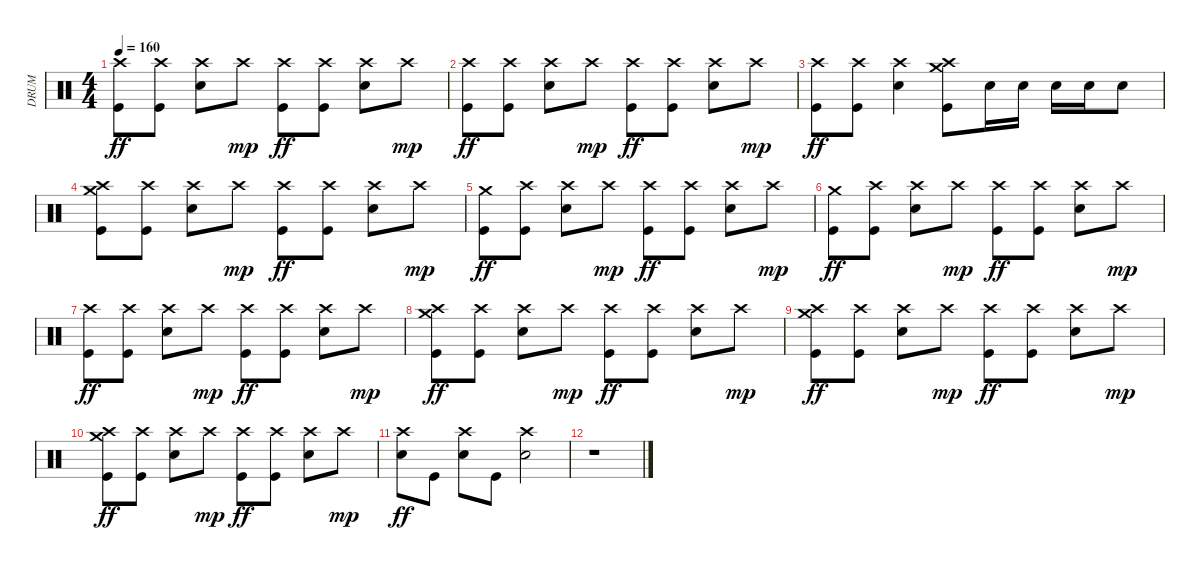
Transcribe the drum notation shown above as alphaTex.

\track ("DRUM" "DRUM") {instrument percussion}
\staff {score}
\articulation defaults
\ts (4 4)
\tempo 160
\clef neutral
\ks c
("Crash high (hit)" "Kick (hit)").8{dy ff} ("Crash high (hit)" "Kick (hit)").8 ("Crash high (hit)" "Electric Snare (hit)").8 "Crash high (hit)".8{dy mp} ("Crash high (hit)" "Kick (hit)").8{dy ff} ("Crash high (hit)" "Kick (hit)").8 ("Crash high (hit)" "Electric Snare (hit)").8 "Crash high (hit)".8{dy mp} |
("Crash high (hit)" "Kick (hit)").8{dy ff} ("Crash high (hit)" "Kick (hit)").8 ("Crash high (hit)" "Electric Snare (hit)").8 "Crash high (hit)".8{dy mp} ("Crash high (hit)" "Kick (hit)").8{dy ff} ("Crash high (hit)" "Kick (hit)").8 ("Crash high (hit)" "Electric Snare (hit)").8 "Crash high (hit)".8{dy mp} |
("Crash high (hit)" "Kick (hit)").8{dy ff} ("Crash high (hit)" "Kick (hit)").8 ("Crash high (hit)" "Electric Snare (hit)").4 ("Crash high (hit)" "Crash medium (hit)" "Kick (hit)").8 "Electric Snare (hit)".16 "Electric Snare (hit)".16 "Electric Snare (hit)".16 "Electric Snare (hit)".16 "Electric Snare (hit)".8 |
("Crash high (hit)" "Crash medium (hit)" "Kick (hit)").8 ("Crash high (hit)" "Kick (hit)").8 ("Crash high (hit)" "Electric Snare (hit)").8 "Crash high (hit)".8{dy mp} ("Crash high (hit)" "Kick (hit)").8{dy ff} ("Crash high (hit)" "Kick (hit)").8 ("Crash high (hit)" "Electric Snare (hit)").8 "Crash high (hit)".8{dy mp} |
("Crash medium (hit)" "Kick (hit)").8{dy ff} ("Crash high (hit)" "Kick (hit)").8 ("Crash high (hit)" "Electric Snare (hit)").8 "Crash high (hit)".8{dy mp} ("Crash high (hit)" "Kick (hit)").8{dy ff} ("Crash high (hit)" "Kick (hit)").8 ("Crash high (hit)" "Electric Snare (hit)").8 "Crash high (hit)".8{dy mp} |
("Crash medium (hit)" "Kick (hit)").8{dy ff} ("Crash high (hit)" "Kick (hit)").8 ("Crash high (hit)" "Electric Snare (hit)").8 "Crash high (hit)".8{dy mp} ("Crash high (hit)" "Kick (hit)").8{dy ff} ("Crash high (hit)" "Kick (hit)").8 ("Crash high (hit)" "Electric Snare (hit)").8 "Crash high (hit)".8{dy mp} |
("Crash high (hit)" "Kick (hit)").8{dy ff} ("Crash high (hit)" "Kick (hit)").8 ("Crash high (hit)" "Electric Snare (hit)").8 "Crash high (hit)".8{dy mp} ("Crash high (hit)" "Kick (hit)").8{dy ff} ("Crash high (hit)" "Kick (hit)").8 ("Crash high (hit)" "Electric Snare (hit)").8 "Crash high (hit)".8{dy mp} |
("Crash high (hit)" "Crash medium (hit)" "Kick (hit)").8{dy ff} ("Crash high (hit)" "Kick (hit)").8 ("Crash high (hit)" "Electric Snare (hit)").8 "Crash high (hit)".8{dy mp} ("Crash high (hit)" "Kick (hit)").8{dy ff} ("Crash high (hit)" "Kick (hit)").8 ("Crash high (hit)" "Electric Snare (hit)").8 "Crash high (hit)".8{dy mp} |
("Crash high (hit)" "Crash medium (hit)" "Kick (hit)").8{dy ff} ("Crash high (hit)" "Kick (hit)").8 ("Crash high (hit)" "Electric Snare (hit)").8 "Crash high (hit)".8{dy mp} ("Crash high (hit)" "Kick (hit)").8{dy ff} ("Crash high (hit)" "Kick (hit)").8 ("Crash high (hit)" "Electric Snare (hit)").8 "Crash high (hit)".8{dy mp} |
("Crash high (hit)" "Crash medium (hit)" "Kick (hit)").8{dy ff} ("Crash high (hit)" "Kick (hit)").8 ("Crash high (hit)" "Electric Snare (hit)").8 "Crash high (hit)".8{dy mp} ("Crash high (hit)" "Kick (hit)").8{dy ff} ("Crash high (hit)" "Kick (hit)").8 ("Crash high (hit)" "Electric Snare (hit)").8 "Crash high (hit)".8{dy mp} |
("Crash high (hit)" "Electric Snare (hit)").8{dy ff} "Kick (hit)".8 ("Crash high (hit)" "Electric Snare (hit)").8 "Kick (hit)".8 ("Crash high (hit)" "Electric Snare (hit)").2 |
r.1
